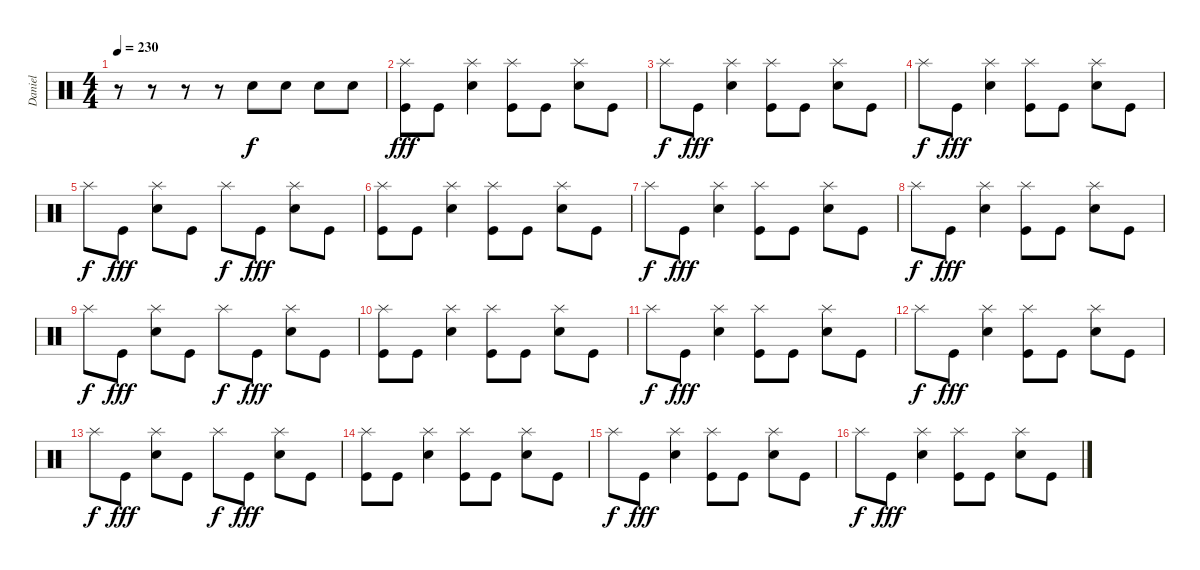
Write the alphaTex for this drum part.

\track ("Daniel" "Daniel") {instrument percussion}
\staff {score}
\articulation defaults
\ts (4 4)
\tempo 230
\clef neutral
\ks c
r.8{dy f} r.8 r.8 r.8 "Electric Snare (hit)".8 "Electric Snare (hit)".8 "Electric Snare (hit)".8 "Electric Snare (hit)".8 |
("Kick (hit)" "Splash (hit)").8{dy fff} "Kick (hit)".8 ("Electric Snare (hit)" "Splash (hit)").4 ("Kick (hit)" "Splash (hit)").8 "Kick (hit)".8 ("Electric Snare (hit)" "Splash (hit)").8 "Kick (hit)".8 |
"Splash (hit)".8{dy f} "Kick (hit)".8{dy fff} ("Electric Snare (hit)" "Splash (hit)").4 ("Kick (hit)" "Splash (hit)").8 "Kick (hit)".8 ("Electric Snare (hit)" "Splash (hit)").8 "Kick (hit)".8 |
"Splash (hit)".8{dy f} "Kick (hit)".8{dy fff} ("Electric Snare (hit)" "Splash (hit)").4 ("Kick (hit)" "Splash (hit)").8 "Kick (hit)".8 ("Electric Snare (hit)" "Splash (hit)").8 "Kick (hit)".8 |
"Splash (hit)".8{dy f} "Kick (hit)".8{dy fff} ("Electric Snare (hit)" "Splash (hit)").8 "Kick (hit)".8 "Splash (hit)".8{dy f} "Kick (hit)".8{dy fff} ("Electric Snare (hit)" "Splash (hit)").8 "Kick (hit)".8 |
("Kick (hit)" "Splash (hit)").8 "Kick (hit)".8 ("Electric Snare (hit)" "Splash (hit)").4 ("Kick (hit)" "Splash (hit)").8 "Kick (hit)".8 ("Electric Snare (hit)" "Splash (hit)").8 "Kick (hit)".8 |
"Splash (hit)".8{dy f} "Kick (hit)".8{dy fff} ("Electric Snare (hit)" "Splash (hit)").4 ("Kick (hit)" "Splash (hit)").8 "Kick (hit)".8 ("Electric Snare (hit)" "Splash (hit)").8 "Kick (hit)".8 |
"Splash (hit)".8{dy f} "Kick (hit)".8{dy fff} ("Electric Snare (hit)" "Splash (hit)").4 ("Kick (hit)" "Splash (hit)").8 "Kick (hit)".8 ("Electric Snare (hit)" "Splash (hit)").8 "Kick (hit)".8 |
"Splash (hit)".8{dy f} "Kick (hit)".8{dy fff} ("Electric Snare (hit)" "Splash (hit)").8 "Kick (hit)".8 "Splash (hit)".8{dy f} "Kick (hit)".8{dy fff} ("Electric Snare (hit)" "Splash (hit)").8 "Kick (hit)".8 |
("Kick (hit)" "Splash (hit)").8 "Kick (hit)".8 ("Electric Snare (hit)" "Splash (hit)").4 ("Kick (hit)" "Splash (hit)").8 "Kick (hit)".8 ("Electric Snare (hit)" "Splash (hit)").8 "Kick (hit)".8 |
"Splash (hit)".8{dy f} "Kick (hit)".8{dy fff} ("Electric Snare (hit)" "Splash (hit)").4 ("Kick (hit)" "Splash (hit)").8 "Kick (hit)".8 ("Electric Snare (hit)" "Splash (hit)").8 "Kick (hit)".8 |
"Splash (hit)".8{dy f} "Kick (hit)".8{dy fff} ("Electric Snare (hit)" "Splash (hit)").4 ("Kick (hit)" "Splash (hit)").8 "Kick (hit)".8 ("Electric Snare (hit)" "Splash (hit)").8 "Kick (hit)".8 |
"Splash (hit)".8{dy f} "Kick (hit)".8{dy fff} ("Electric Snare (hit)" "Splash (hit)").8 "Kick (hit)".8 "Splash (hit)".8{dy f} "Kick (hit)".8{dy fff} ("Electric Snare (hit)" "Splash (hit)").8 "Kick (hit)".8 |
("Kick (hit)" "Splash (hit)").8 "Kick (hit)".8 ("Electric Snare (hit)" "Splash (hit)").4 ("Kick (hit)" "Splash (hit)").8 "Kick (hit)".8 ("Electric Snare (hit)" "Splash (hit)").8 "Kick (hit)".8 |
"Splash (hit)".8{dy f} "Kick (hit)".8{dy fff} ("Electric Snare (hit)" "Splash (hit)").4 ("Kick (hit)" "Splash (hit)").8 "Kick (hit)".8 ("Electric Snare (hit)" "Splash (hit)").8 "Kick (hit)".8 |
"Splash (hit)".8{dy f} "Kick (hit)".8{dy fff} ("Electric Snare (hit)" "Splash (hit)").4 ("Kick (hit)" "Splash (hit)").8 "Kick (hit)".8 ("Electric Snare (hit)" "Splash (hit)").8 "Kick (hit)".8
